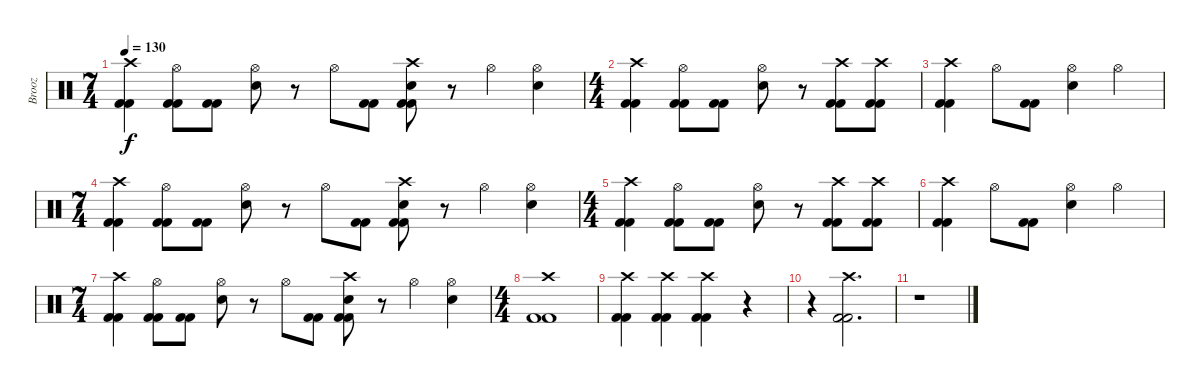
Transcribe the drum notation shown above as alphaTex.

\track ("Brooz" "Brooz") {instrument percussion}
\staff {score}
\articulation defaults
\ts (7 4)
\tempo 130
\clef neutral
\ks c
("Crash high (hit)" "Kick (hit) 2" "Kick (hit) 2").4{dy f} ("Hi-Hat (open)" "Kick (hit) 2" "Kick (hit) 2").8 ("Kick (hit) 2" "Kick (hit) 2").8 ("Hi-Hat (open)" "Snare (hit) 2").8 r.8 "Hi-Hat (open)".8 ("Kick (hit) 2" "Kick (hit) 2").8 ("Crash high (hit)" "Snare (hit) 2" "Kick (hit) 2" "Kick (hit) 2").8 r.8 "Hi-Hat (open)".4 ("Hi-Hat (open)" "Snare (hit) 2").4 |
\ts (4 4)
("Crash high (hit)" "Kick (hit) 2" "Kick (hit) 2").4 ("Hi-Hat (open)" "Kick (hit) 2" "Kick (hit) 2").8 ("Kick (hit) 2" "Kick (hit) 2").8 ("Hi-Hat (open)" "Snare (hit) 2").8 r.8 ("Crash high (hit)" "Kick (hit) 2" "Kick (hit) 2").8 ("Crash high (hit)" "Kick (hit) 2" "Kick (hit) 2").8 |
("Crash high (hit)" "Kick (hit) 2" "Kick (hit) 2").4 "Hi-Hat (open)".8 ("Kick (hit) 2" "Kick (hit) 2").8 ("Hi-Hat (open)" "Snare (hit) 2").4 "Hi-Hat (open)".4 |
\ts (7 4)
("Crash high (hit)" "Kick (hit) 2" "Kick (hit) 2").4 ("Hi-Hat (open)" "Kick (hit) 2" "Kick (hit) 2").8 ("Kick (hit) 2" "Kick (hit) 2").8 ("Hi-Hat (open)" "Snare (hit) 2").8 r.8 "Hi-Hat (open)".8 ("Kick (hit) 2" "Kick (hit) 2").8 ("Crash high (hit)" "Snare (hit) 2" "Kick (hit) 2" "Kick (hit) 2").8 r.8 "Hi-Hat (open)".4 ("Hi-Hat (open)" "Snare (hit) 2").4 |
\ts (4 4)
("Crash high (hit)" "Kick (hit) 2" "Kick (hit) 2").4 ("Hi-Hat (open)" "Kick (hit) 2" "Kick (hit) 2").8 ("Kick (hit) 2" "Kick (hit) 2").8 ("Hi-Hat (open)" "Snare (hit) 2").8 r.8 ("Crash high (hit)" "Kick (hit) 2" "Kick (hit) 2").8 ("Crash high (hit)" "Kick (hit) 2" "Kick (hit) 2").8 |
("Crash high (hit)" "Kick (hit) 2" "Kick (hit) 2").4 "Hi-Hat (open)".8 ("Kick (hit) 2" "Kick (hit) 2").8 ("Hi-Hat (open)" "Snare (hit) 2").4 "Hi-Hat (open)".4 |
\ts (7 4)
("Crash high (hit)" "Kick (hit) 2" "Kick (hit) 2").4 ("Hi-Hat (open)" "Kick (hit) 2" "Kick (hit) 2").8 ("Kick (hit) 2" "Kick (hit) 2").8 ("Hi-Hat (open)" "Snare (hit) 2").8 r.8 "Hi-Hat (open)".8 ("Kick (hit) 2" "Kick (hit) 2").8 ("Crash high (hit)" "Snare (hit) 2" "Kick (hit) 2" "Kick (hit) 2").8 r.8 "Hi-Hat (open)".4 ("Hi-Hat (open)" "Snare (hit) 2").4 |
\ts (4 4)
("Crash high (hit)" "Kick (hit) 2" "Kick (hit) 2").1 |
("Crash high (hit)" "Kick (hit) 2" "Kick (hit) 2").4 ("Crash high (hit)" "Kick (hit) 2" "Kick (hit) 2").4 ("Crash high (hit)" "Kick (hit) 2" "Kick (hit) 2").4 r.4 |
r.4 ("Crash high (hit)" "Kick (hit) 2" "Kick (hit) 2").2{d} |
r.1
